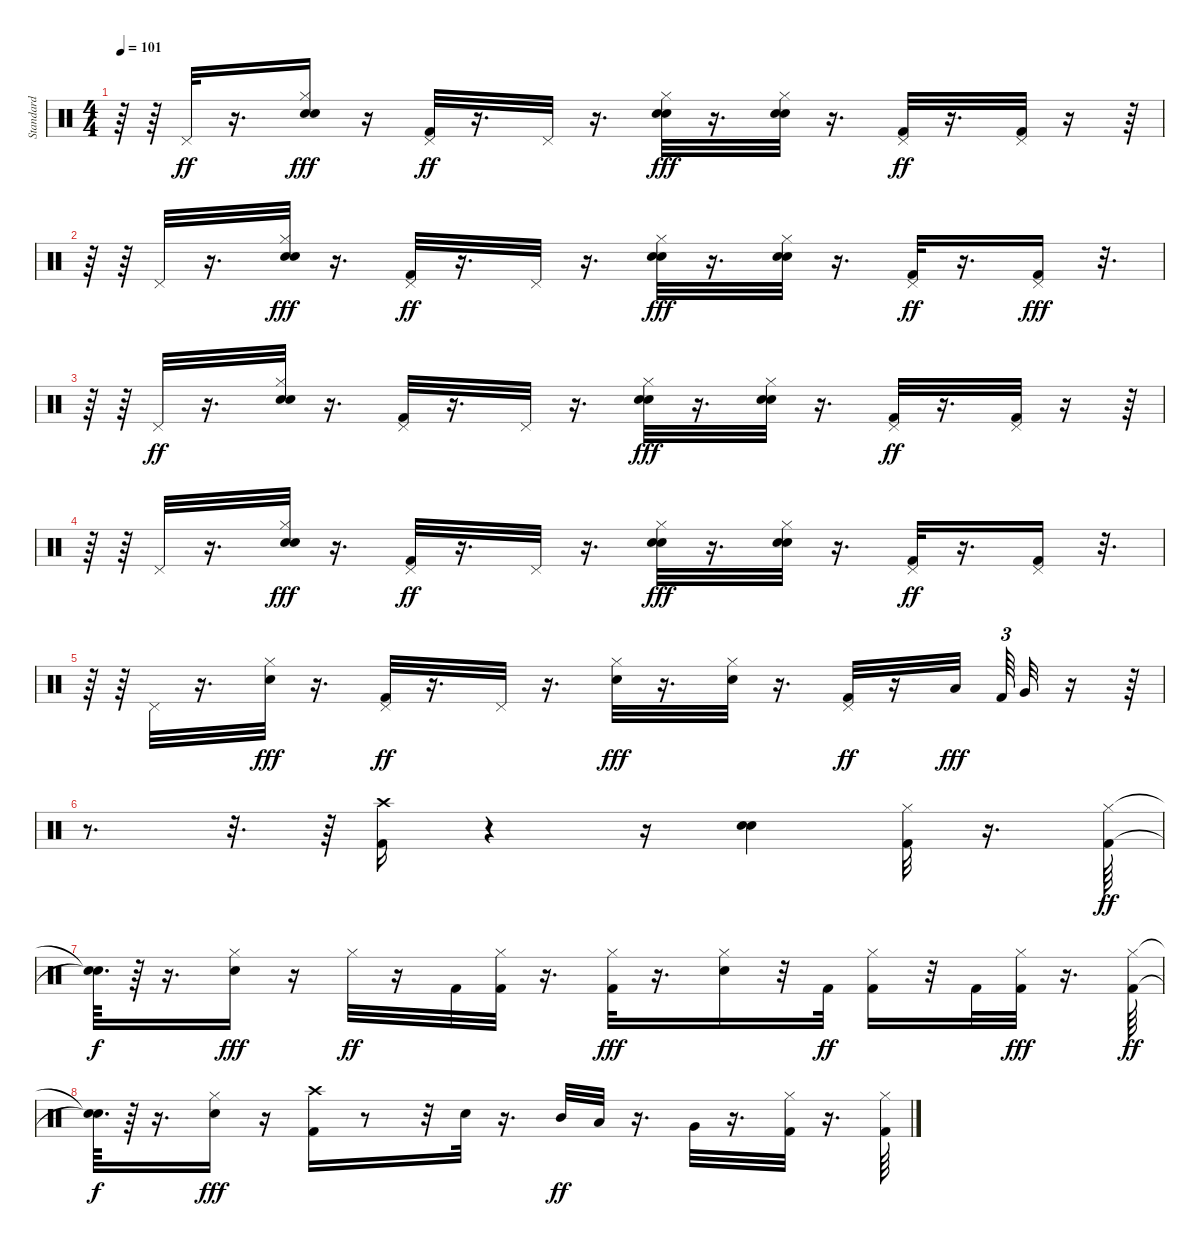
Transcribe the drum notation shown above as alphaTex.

\track (" Standard" " Standard") {instrument percussion}
\staff {score}
\articulation defaults
\ts (4 4)
\tempo 101
\clef neutral
\ks c
r.64{dy ff} r.64 "Pedal Hi-Hat (hit)".32 r.16{d} ("Hand Clap (hit)" "Hi-Hat (closed)" "Electric Snare (hit)").16{dy fff} r.16 ("Kick (hit) 2" "Pedal Hi-Hat (hit)").32{dy ff} r.16{d} "Pedal Hi-Hat (hit)".32 r.16{d} ("Electric Snare (hit)" "Hi-Hat (closed)" "Hand Clap (hit)").32{dy fff} r.16{d} ("Hand Clap (hit)" "Electric Snare (hit)" "Hi-Hat (closed)").32 r.16{d} ("Kick (hit) 2" "Pedal Hi-Hat (hit)").32{dy ff} r.16{d} ("Kick (hit) 2" "Pedal Hi-Hat (hit)").32 r.16 r.64 |
r.64 r.64 "Pedal Hi-Hat (hit)".32 r.16{d} ("Hand Clap (hit)" "Electric Snare (hit)" "Hi-Hat (closed)").32{dy fff} r.16{d} ("Kick (hit) 2" "Pedal Hi-Hat (hit)").32{dy ff} r.16{d} "Pedal Hi-Hat (hit)".32 r.16{d} ("Hi-Hat (closed)" "Electric Snare (hit)" "Hand Clap (hit)").32{dy fff} r.16{d} ("Electric Snare (hit)" "Hi-Hat (closed)" "Hand Clap (hit)").32 r.16{d} ("Kick (hit) 2" "Pedal Hi-Hat (hit)").32{dy ff} r.16{d} ("Pedal Hi-Hat (hit)" "Kick (hit) 2").16{dy fff} r.32{d} |
r.64 r.64 "Pedal Hi-Hat (hit)".32{dy ff} r.16{d} ("Hand Clap (hit)" "Electric Snare (hit)" "Hi-Hat (closed)").32 r.16{d} ("Kick (hit) 2" "Pedal Hi-Hat (hit)").32 r.16{d} "Pedal Hi-Hat (hit)".32 r.16{d} ("Hand Clap (hit)" "Electric Snare (hit)" "Hi-Hat (closed)").32{dy fff} r.16{d} ("Hand Clap (hit)" "Electric Snare (hit)" "Hi-Hat (closed)").32 r.16{d} ("Kick (hit) 2" "Pedal Hi-Hat (hit)").32{dy ff} r.16{d} ("Kick (hit) 2" "Pedal Hi-Hat (hit)").32 r.16 r.64 |
r.64 r.64 "Pedal Hi-Hat (hit)".32 r.16{d} ("Electric Snare (hit)" "Hi-Hat (closed)" "Hand Clap (hit)").32{dy fff} r.16{d} ("Kick (hit) 2" "Pedal Hi-Hat (hit)").32{dy ff} r.16{d} "Pedal Hi-Hat (hit)".32 r.16{d} ("Hi-Hat (closed)" "Electric Snare (hit)" "Hand Clap (hit)").32{dy fff} r.16{d} ("Hand Clap (hit)" "Electric Snare (hit)" "Hi-Hat (closed)").32 r.16{d} ("Kick (hit) 2" "Pedal Hi-Hat (hit)").32{dy ff} r.16{d} ("Kick (hit) 2" "Pedal Hi-Hat (hit)").16 r.32{d} |
r.64 r.64 "Pedal Hi-Hat (hit)".32 r.16{d} ("Hi-Hat (closed)" "Electric Snare (hit)").32{dy fff} r.16{d} ("Kick (hit) 2" "Pedal Hi-Hat (hit)").32{dy ff} r.16{d} "Pedal Hi-Hat (hit)".32 r.16{d} ("Electric Snare (hit)" "Hi-Hat (closed)").32{dy fff} r.16{d} ("Electric Snare (hit)" "Hi-Hat (closed)").32 r.16{d} ("Kick (hit) 2" "Pedal Hi-Hat (hit)").32{dy ff} r.16 "Low Tom (hit)".32{dy fff beam splitsecondary} "Kick (hit) 2".64{tu (3 2)} "Very Low Tom (hit)".32 r.16 r.64 |
r.8{d} r.32{d} r.64 ("Crash high (hit)" "Kick (hit) 2").16 r.4 r.16 ("Electric Snare (hit)" "Electric Snare (hit)").4 ("Kick (hit) 2" "Hi-Hat (closed)").32 r.16{d} ("Kick (hit) 2" "Hi-Hat (closed)").64{dy ff} |
("Snare (hit)"{t} "Snare (hit)"{t}).64{d dy f} r.64 r.16{d} ("Hi-Hat (closed)" "Electric Snare (hit)").16{dy fff} r.16 "Hi-Hat (closed)".32{dy ff} r.16 "Kick (hit) 2".32 ("Hi-Hat (closed)" "Kick (hit) 2").32 r.16{d} ("Hi-Hat (closed)" "Kick (hit) 2").32{dy fff} r.16{d} ("Hi-Hat (closed)" "Electric Snare (hit)").16 r.32 "Kick (hit) 2".32{dy ff} ("Hi-Hat (closed)" "Kick (hit) 2").16 r.32 "Kick (hit) 2".32 ("Hi-Hat (closed)" "Kick (hit) 2").32{dy fff} r.16{d} ("Kick (hit) 2" "Hi-Hat (closed)").64{dy ff} |
("Snare (hit)"{t} "Snare (hit)"{t}).64{d dy f} r.64 r.16{d} ("Hi-Hat (closed)" "Electric Snare (hit)").16{dy fff} r.16 ("Crash high (hit)" "Kick (hit) 2").16 r.8 r.32 "Electric Snare (hit)".32 r.16{d} "Mid Tom (hit)".32{dy ff} "Low Tom (hit)".32 r.16{d} "Very Low Tom (hit)".32 r.16{d} ("Hi-Hat (closed)" "Kick (hit) 2").32 r.16{d} ("Hi-Hat (closed)" "Kick (hit) 2").64
